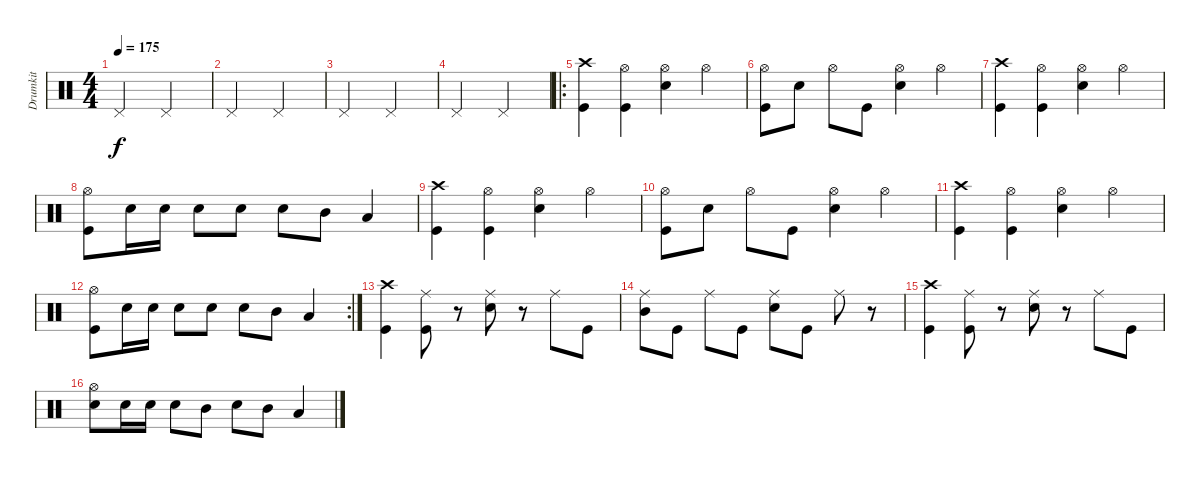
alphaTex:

\track ("Drumkit" "Drumkit") {instrument percussion}
\staff {score}
\articulation defaults
\ts (4 4)
\tempo 175
\clef neutral
\ks c "Pedal Hi-Hat (hit)".2{dy f} "Pedal Hi-Hat (hit)".2
|
"Pedal Hi-Hat (hit)".2 "Pedal Hi-Hat (hit)".2 |
"Pedal Hi-Hat (hit)".2 "Pedal Hi-Hat (hit)".2 |
"Pedal Hi-Hat (hit)".2 "Pedal Hi-Hat (hit)".2 |
\ro
("Crash high (hit)" "Kick (hit)").4 ("Hi-Hat (open)" "Kick (hit)").4 ("Hi-Hat (open)" "Snare (hit) 2").4 "Hi-Hat (open)".4 |
("Hi-Hat (open)" "Kick (hit)").8 "Snare (hit) 2".8 "Hi-Hat (open)".8 "Kick (hit)".8 ("Hi-Hat (open)" "Snare (hit) 2").4 "Hi-Hat (open)".4 |
("Crash high (hit)" "Kick (hit)").4 ("Hi-Hat (open)" "Kick (hit)").4 ("Hi-Hat (open)" "Snare (hit) 2").4 "Hi-Hat (open)".4 |
("Hi-Hat (open)" "Kick (hit)").8 "Snare (hit) 2".16 "Snare (hit) 2".16 "Snare (hit) 2".8 "Snare (hit) 2".8 "Snare (hit) 2".8 "Mid Tom (hit)".8 "Low Tom (hit)".4 |
("Crash high (hit)" "Kick (hit)").4 ("Hi-Hat (open)" "Kick (hit)").4 ("Hi-Hat (open)" "Snare (hit) 2").4 "Hi-Hat (open)".4 |
("Hi-Hat (open)" "Kick (hit)").8 "Snare (hit) 2".8 "Hi-Hat (open)".8 "Kick (hit)".8 ("Hi-Hat (open)" "Snare (hit) 2").4 "Hi-Hat (open)".4 |
("Crash high (hit)" "Kick (hit)").4 ("Hi-Hat (open)" "Kick (hit)").4 ("Hi-Hat (open)" "Snare (hit) 2").4 "Hi-Hat (open)".4 |
\rc 2
("Hi-Hat (open)" "Kick (hit)").8 "Snare (hit) 2".16 "Snare (hit) 2".16 "Snare (hit) 2".8 "Snare (hit) 2".8 "Snare (hit) 2".8 "Mid Tom (hit)".8 "Low Tom (hit)".4 |
("Crash high (hit)" "Kick (hit)").4 ("Ride (middle)" "Kick (hit)").8 r.8 ("Ride (middle)" "Snare (hit) 2").8 r.8 "Ride (middle)".8 "Kick (hit)".8 |
("Ride (middle)" "Mid Tom (hit)").8 "Kick (hit)".8 "Ride (middle)".8 "Kick (hit)".8 ("Ride (middle)" "Snare (hit) 2").8 "Kick (hit)".8 "Ride (middle)".8 r.8 |
("Crash high (hit)" "Kick (hit)").4 ("Ride (middle)" "Kick (hit)").8 r.8 ("Ride (middle)" "Snare (hit) 2").8 r.8 "Ride (middle)".8 "Kick (hit)".8 |
("Hi-Hat (open)" "Snare (hit) 2").8 "Snare (hit) 2".16 "Snare (hit) 2".16 "Snare (hit) 2".8 "Mid Tom (hit)".8 "Snare (hit) 2".8 "Mid Tom (hit)".8 "Low Tom (hit)".4
